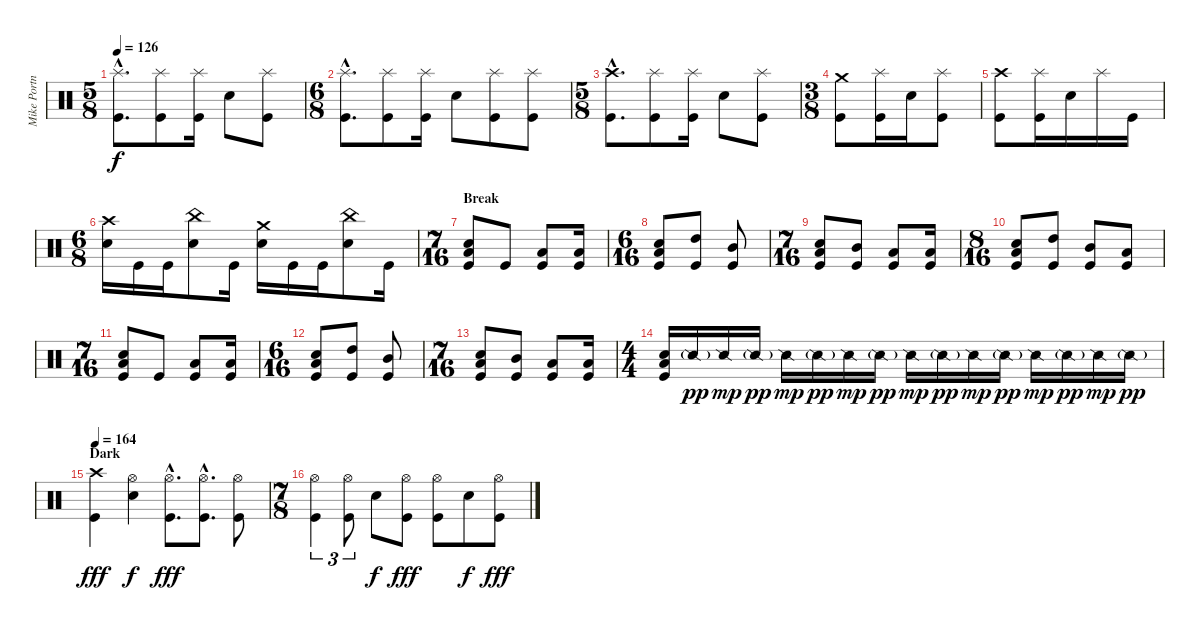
\track ("Mike Portnoy" "Mike Portn") {instrument percussion}
\staff {score}
\articulation defaults
\ts (5 8)
\tempo 126
\clef neutral
\ks c
("Splash (hit)"{hac} "Kick (hit)"{hac}).8{d dy f} ("Splash (hit)" "Kick (hit)").8 ("Splash (hit)" "Kick (hit)").16 "Electric Snare (hit)".8 ("Splash (hit)" "Kick (hit)").8 |
\ts (6 8)
("Splash (hit)"{hac} "Kick (hit)"{hac}).8{d} ("Splash (hit)" "Kick (hit)").8 ("Splash (hit)" "Kick (hit)").16 "Electric Snare (hit)".8 ("Splash (hit)" "Kick (hit)").8 ("Splash (hit)" "Kick (hit)").8 |
\ts (5 8)
("Crash high (hit)"{hac} "Kick (hit)"{hac}).8{d} ("Splash (hit)" "Kick (hit)").8 ("Splash (hit)" "Kick (hit)").16 "Electric Snare (hit)".8 ("Splash (hit)" "Kick (hit)").8 |
\ts (3 8)
("Crash medium (hit)" "Kick (hit)").8 ("Splash (hit)" "Kick (hit)").16 "Electric Snare (hit)".16 ("Splash (hit)" "Kick (hit)").8 |
("Crash high (hit)" "Kick (hit)").8 ("Splash (hit)" "Kick (hit)").16 "Electric Snare (hit)".16 "Splash (hit)".16 "Kick (hit)".16 |
\ts (6 8)
("Crash high (hit)" "Electric Snare (hit)").16 "Kick (hit)".16 "Kick (hit)".16 ("China (hit)" "Electric Snare (hit)").8 "Kick (hit)".16 ("Crash medium (hit)" "Electric Snare (hit)").16 "Kick (hit)".16 "Kick (hit)".16 ("China (hit)" "Electric Snare (hit)").8 "Kick (hit)".16 |
\ts (7 16)
\section ("" "Break")
("Low Tom (hit)" "Electric Snare (hit)" "Kick (hit)").8 "Kick (hit)".8 ("Low Tom (hit)" "Kick (hit)").8 ("Low Tom (hit)" "Kick (hit)").16 |
\ts (6 16)
("Low Tom (hit)" "Electric Snare (hit)" "Kick (hit)").8 ("High Tom (hit)" "Kick (hit)").8 ("Mid Tom (hit)" "Kick (hit)").8 |
\ts (7 16)
("Low Tom (hit)" "Electric Snare (hit)" "Kick (hit)").8 ("Mid Tom (hit)" "Kick (hit)").8 ("Low Tom (hit)" "Kick (hit)").8 ("Low Tom (hit)" "Kick (hit)").16 |
\ts (8 16)
("Low Tom (hit)" "Electric Snare (hit)" "Kick (hit)").8 ("High Tom (hit)" "Kick (hit)").8 ("Mid Tom (hit)" "Kick (hit)").8 ("Low Tom (hit)" "Kick (hit)").8 |
\ts (7 16)
("Low Tom (hit)" "Electric Snare (hit)" "Kick (hit)").8 "Kick (hit)".8 ("Low Tom (hit)" "Kick (hit)").8 ("Low Tom (hit)" "Kick (hit)").16 |
\ts (6 16)
("Low Tom (hit)" "Electric Snare (hit)" "Kick (hit)").8 ("High Tom (hit)" "Kick (hit)").8 ("Mid Tom (hit)" "Kick (hit)").8 |
\ts (7 16)
("Low Tom (hit)" "Electric Snare (hit)" "Kick (hit)").8 ("Mid Tom (hit)" "Kick (hit)").8 ("Low Tom (hit)" "Kick (hit)").8 ("Low Tom (hit)" "Kick (hit)").16 |
\ts (4 4)
("Low Tom (hit)" "Electric Snare (hit)" "Kick (hit)").16 "Snare (side stick) 2"{g}.16{dy pp} "Snare (side stick) 2".16{dy mp} "Snare (side stick) 2"{g}.16{dy pp} "Snare (side stick) 2".16{dy mp} "Snare (side stick) 2"{g}.16{dy pp} "Snare (side stick) 2".16{dy mp} "Snare (side stick) 2"{g}.16{dy pp} "Snare (side stick) 2".16{dy mp} "Snare (side stick) 2"{g}.16{dy pp} "Snare (side stick) 2".16{dy mp} "Snare (side stick) 2"{g}.16{dy pp} "Snare (side stick) 2".16{dy mp} "Snare (side stick) 2"{g}.16{dy pp} "Snare (side stick) 2".16{dy mp} "Snare (side stick) 2"{g}.16{dy pp} |
\section ("" "Dark")
\tempo 164
("Crash high (hit)" "Kick (hit)").4{dy fff} ("Hi-Hat (open)" "Electric Snare (hit)").4{dy f} ("Hi-Hat (open)"{hac} "Kick (hit)"{hac}).8{d dy fff} ("Hi-Hat (open)"{hac} "Kick (hit)"{hac}).8{d} ("Hi-Hat (open)" "Kick (hit)").8 |
\ts (7 8)
("Hi-Hat (open)" "Kick (hit)").4{tu (3 2)} ("Hi-Hat (open)" "Kick (hit)").8{tu (3 2)} "Electric Snare (hit)".8{dy f} ("Hi-Hat (open)" "Kick (hit)").8{dy fff} ("Hi-Hat (open)" "Kick (hit)").8 "Electric Snare (hit)".8{dy f} ("Hi-Hat (open)" "Kick (hit)").8{dy fff}
